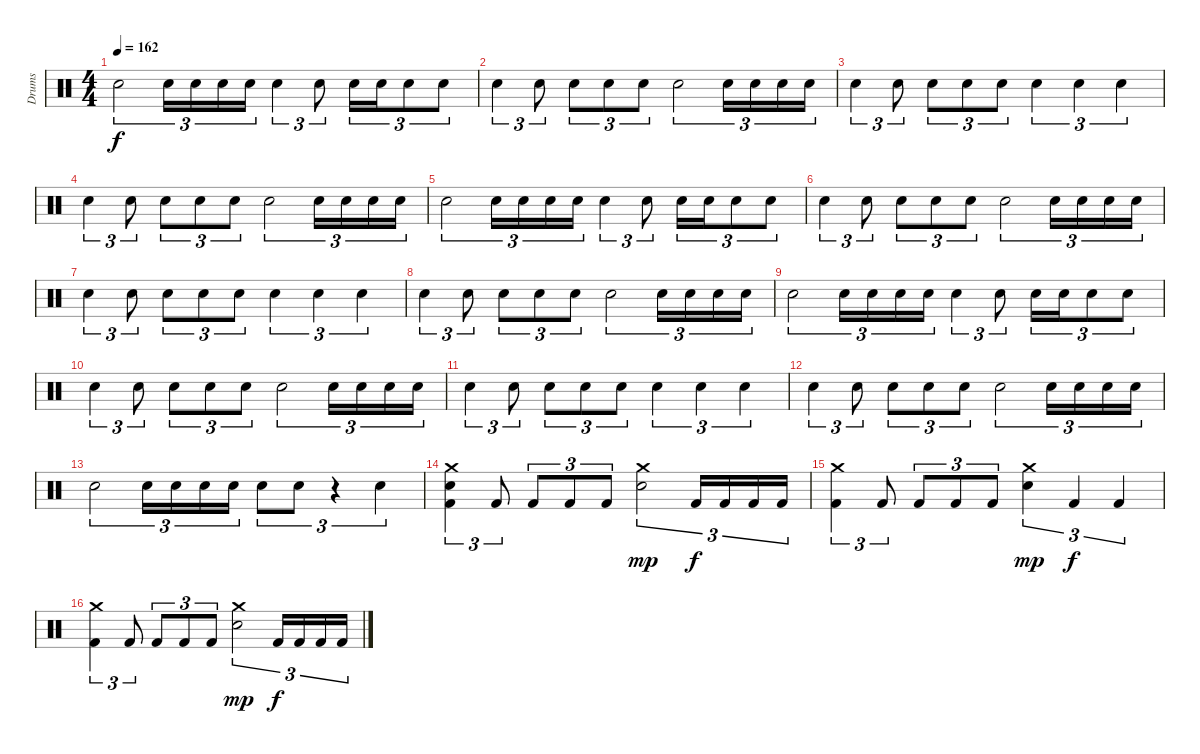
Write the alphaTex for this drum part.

\track ("Drums" "Drums") {instrument percussion}
\staff {score}
\articulation defaults
\ts (4 4)
\tempo 162
\clef neutral
\ks c "Electric Snare (hit)".2{tu (3 2) dy f} "Electric Snare (hit)".16{tu (3 2)} "Electric Snare (hit)".16{tu (3 2)} "Electric Snare (hit)".16{tu (3 2)} "Electric Snare (hit)".16{tu (3 2)} "Electric Snare (hit)".4{tu (3 2)} "Electric Snare (hit)".8{tu (3 2)} "Electric Snare (hit)".16{tu (3 2)} "Electric Snare (hit)".16{tu (3 2)} "Electric Snare (hit)".8{tu (3 2)} "Electric Snare (hit)".8{tu (3 2)}
|
"Electric Snare (hit)".4{tu (3 2)} "Electric Snare (hit)".8{tu (3 2)} "Electric Snare (hit)".8{tu (3 2)} "Electric Snare (hit)".8{tu (3 2)} "Electric Snare (hit)".8{tu (3 2)} "Electric Snare (hit)".2{tu (3 2)} "Electric Snare (hit)".16{tu (3 2)} "Electric Snare (hit)".16{tu (3 2)} "Electric Snare (hit)".16{tu (3 2)} "Electric Snare (hit)".16{tu (3 2)} |
"Electric Snare (hit)".4{tu (3 2)} "Electric Snare (hit)".8{tu (3 2)} "Electric Snare (hit)".8{tu (3 2)} "Electric Snare (hit)".8{tu (3 2)} "Electric Snare (hit)".8{tu (3 2)} "Electric Snare (hit)".4{tu (3 2)} "Electric Snare (hit)".4{tu (3 2)} "Electric Snare (hit)".4{tu (3 2)} |
"Electric Snare (hit)".4{tu (3 2)} "Electric Snare (hit)".8{tu (3 2)} "Electric Snare (hit)".8{tu (3 2)} "Electric Snare (hit)".8{tu (3 2)} "Electric Snare (hit)".8{tu (3 2)} "Electric Snare (hit)".2{tu (3 2)} "Electric Snare (hit)".16{tu (3 2)} "Electric Snare (hit)".16{tu (3 2)} "Electric Snare (hit)".16{tu (3 2)} "Electric Snare (hit)".16{tu (3 2)} |
"Electric Snare (hit)".2{tu (3 2)} "Electric Snare (hit)".16{tu (3 2)} "Electric Snare (hit)".16{tu (3 2)} "Electric Snare (hit)".16{tu (3 2)} "Electric Snare (hit)".16{tu (3 2)} "Electric Snare (hit)".4{tu (3 2)} "Electric Snare (hit)".8{tu (3 2)} "Electric Snare (hit)".16{tu (3 2)} "Electric Snare (hit)".16{tu (3 2)} "Electric Snare (hit)".8{tu (3 2)} "Electric Snare (hit)".8{tu (3 2)} |
"Electric Snare (hit)".4{tu (3 2) volume 8} "Electric Snare (hit)".8{tu (3 2)} "Electric Snare (hit)".8{tu (3 2)} "Electric Snare (hit)".8{tu (3 2)} "Electric Snare (hit)".8{tu (3 2)} "Electric Snare (hit)".2{tu (3 2)} "Electric Snare (hit)".16{tu (3 2)} "Electric Snare (hit)".16{tu (3 2)} "Electric Snare (hit)".16{tu (3 2)} "Electric Snare (hit)".16{tu (3 2)} |
"Electric Snare (hit)".4{tu (3 2)} "Electric Snare (hit)".8{tu (3 2)} "Electric Snare (hit)".8{tu (3 2)} "Electric Snare (hit)".8{tu (3 2)} "Electric Snare (hit)".8{tu (3 2)} "Electric Snare (hit)".4{tu (3 2)} "Electric Snare (hit)".4{tu (3 2)} "Electric Snare (hit)".4{tu (3 2)} |
"Electric Snare (hit)".4{tu (3 2)} "Electric Snare (hit)".8{tu (3 2)} "Electric Snare (hit)".8{tu (3 2)} "Electric Snare (hit)".8{tu (3 2)} "Electric Snare (hit)".8{tu (3 2)} "Electric Snare (hit)".2{tu (3 2)} "Electric Snare (hit)".16{tu (3 2)} "Electric Snare (hit)".16{tu (3 2)} "Electric Snare (hit)".16{tu (3 2)} "Electric Snare (hit)".16{tu (3 2)} |
"Electric Snare (hit)".2{tu (3 2)} "Electric Snare (hit)".16{tu (3 2)} "Electric Snare (hit)".16{tu (3 2)} "Electric Snare (hit)".16{tu (3 2)} "Electric Snare (hit)".16{tu (3 2)} "Electric Snare (hit)".4{tu (3 2)} "Electric Snare (hit)".8{tu (3 2)} "Electric Snare (hit)".16{tu (3 2)} "Electric Snare (hit)".16{tu (3 2)} "Electric Snare (hit)".8{tu (3 2)} "Electric Snare (hit)".8{tu (3 2)} |
"Electric Snare (hit)".4{tu (3 2)} "Electric Snare (hit)".8{tu (3 2)} "Electric Snare (hit)".8{tu (3 2)} "Electric Snare (hit)".8{tu (3 2)} "Electric Snare (hit)".8{tu (3 2)} "Electric Snare (hit)".2{tu (3 2)} "Electric Snare (hit)".16{tu (3 2)} "Electric Snare (hit)".16{tu (3 2)} "Electric Snare (hit)".16{tu (3 2)} "Electric Snare (hit)".16{tu (3 2)} |
"Electric Snare (hit)".4{tu (3 2)} "Electric Snare (hit)".8{tu (3 2)} "Electric Snare (hit)".8{tu (3 2)} "Electric Snare (hit)".8{tu (3 2)} "Electric Snare (hit)".8{tu (3 2)} "Electric Snare (hit)".4{tu (3 2)} "Electric Snare (hit)".4{tu (3 2)} "Electric Snare (hit)".4{tu (3 2)} |
"Electric Snare (hit)".4{tu (3 2)} "Electric Snare (hit)".8{tu (3 2)} "Electric Snare (hit)".8{tu (3 2)} "Electric Snare (hit)".8{tu (3 2)} "Electric Snare (hit)".8{tu (3 2)} "Electric Snare (hit)".2{tu (3 2)} "Electric Snare (hit)".16{tu (3 2)} "Electric Snare (hit)".16{tu (3 2)} "Electric Snare (hit)".16{tu (3 2)} "Electric Snare (hit)".16{tu (3 2)} |
"Electric Snare (hit)".2{tu (3 2)} "Electric Snare (hit)".16{tu (3 2)} "Electric Snare (hit)".16{tu (3 2)} "Electric Snare (hit)".16{tu (3 2)} "Electric Snare (hit)".16{tu (3 2)} "Electric Snare (hit)".8{tu (3 2)} "Electric Snare (hit)".8{tu (3 2)} r.4{tu (3 2)} "Electric Snare (hit)".4{tu (3 2)} |
("Kick (hit) 2" "Snare (hit) 2" "Crash medium (hit)").4{tu (3 2) volume 16} "Kick (hit) 2".8{tu (3 2)} "Kick (hit) 2".8{tu (3 2)} "Kick (hit) 2".8{tu (3 2)} "Kick (hit) 2".8{tu (3 2)} ("Snare (hit) 2" "Crash medium (hit)").2{tu (3 2) dy mp} "Kick (hit) 2".16{tu (3 2) dy f} "Kick (hit) 2".16{tu (3 2)} "Kick (hit) 2".16{tu (3 2)} "Kick (hit) 2".16{tu (3 2)} |
("Kick (hit) 2" "Crash medium (hit)").4{tu (3 2)} "Kick (hit) 2".8{tu (3 2)} "Kick (hit) 2".8{tu (3 2)} "Kick (hit) 2".8{tu (3 2)} "Kick (hit) 2".8{tu (3 2)} ("Snare (hit) 2" "Crash medium (hit)").4{tu (3 2) dy mp} "Kick (hit) 2".4{tu (3 2) dy f} "Kick (hit) 2".4{tu (3 2)} |
("Kick (hit) 2" "Crash medium (hit)").4{tu (3 2)} "Kick (hit) 2".8{tu (3 2)} "Kick (hit) 2".8{tu (3 2)} "Kick (hit) 2".8{tu (3 2)} "Kick (hit) 2".8{tu (3 2)} ("Snare (hit) 2" "Crash medium (hit)").2{tu (3 2) dy mp} "Kick (hit) 2".16{tu (3 2) dy f} "Kick (hit) 2".16{tu (3 2)} "Kick (hit) 2".16{tu (3 2)} "Kick (hit) 2".16{tu (3 2)}
